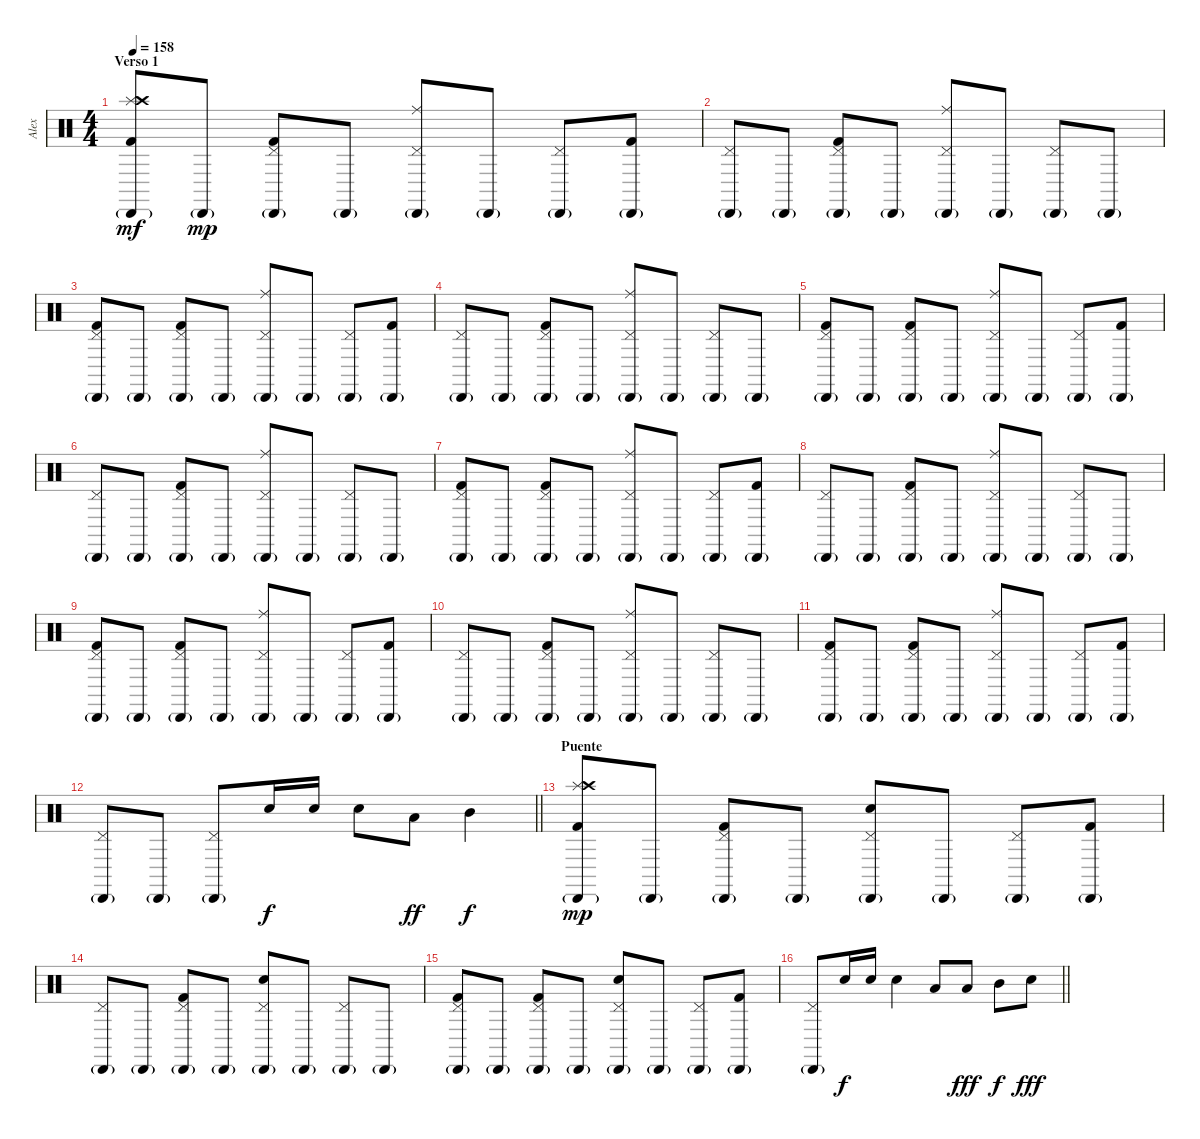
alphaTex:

\track ("Alex" "Alex") {instrument percussion}
\staff {score}
\articulation defaults
\ts (4 4)
\section ("" "Verso 1")
\tempo 158
\clef neutral
\ks c
("Splash (hit)" "Kick (hit) 2" "Crash high (hit)" "Cabasa (hit)"{g}).8{dy mf} "Cabasa (hit)"{g}.8{dy mp} ("Pedal Hi-Hat (hit)" "Kick (hit) 2" "Cabasa (hit)"{g}).8 "Cabasa (hit)"{g}.8 ("Pedal Hi-Hat (hit)" "Ride (middle)" "Cabasa (hit)"{g}).8 "Cabasa (hit)"{g}.8 ("Pedal Hi-Hat (hit)" "Cabasa (hit)"{g}).8 ("Kick (hit) 2" "Cabasa (hit)"{g}).8 |
("Pedal Hi-Hat (hit)" "Cabasa (hit)"{g}).8 "Cabasa (hit)"{g}.8 ("Pedal Hi-Hat (hit)" "Kick (hit) 2" "Cabasa (hit)"{g}).8 "Cabasa (hit)"{g}.8 ("Pedal Hi-Hat (hit)" "Ride (middle)" "Cabasa (hit)"{g}).8 "Cabasa (hit)"{g}.8 ("Pedal Hi-Hat (hit)" "Cabasa (hit)"{g}).8 "Cabasa (hit)"{g}.8 |
("Pedal Hi-Hat (hit)" "Kick (hit) 2" "Cabasa (hit)"{g}).8 "Cabasa (hit)"{g}.8 ("Pedal Hi-Hat (hit)" "Kick (hit) 2" "Cabasa (hit)"{g}).8 "Cabasa (hit)"{g}.8 ("Pedal Hi-Hat (hit)" "Ride (middle)" "Cabasa (hit)"{g}).8 "Cabasa (hit)"{g}.8 ("Pedal Hi-Hat (hit)" "Cabasa (hit)"{g}).8 ("Kick (hit) 2" "Cabasa (hit)"{g}).8 |
("Pedal Hi-Hat (hit)" "Cabasa (hit)"{g}).8 "Cabasa (hit)"{g}.8 ("Pedal Hi-Hat (hit)" "Kick (hit) 2" "Cabasa (hit)"{g}).8 "Cabasa (hit)"{g}.8 ("Pedal Hi-Hat (hit)" "Ride (middle)" "Cabasa (hit)"{g}).8 "Cabasa (hit)"{g}.8 ("Pedal Hi-Hat (hit)" "Cabasa (hit)"{g}).8 "Cabasa (hit)"{g}.8 |
("Pedal Hi-Hat (hit)" "Kick (hit) 2" "Cabasa (hit)"{g}).8 "Cabasa (hit)"{g}.8 ("Pedal Hi-Hat (hit)" "Kick (hit) 2" "Cabasa (hit)"{g}).8 "Cabasa (hit)"{g}.8 ("Pedal Hi-Hat (hit)" "Ride (middle)" "Cabasa (hit)"{g}).8 "Cabasa (hit)"{g}.8 ("Pedal Hi-Hat (hit)" "Cabasa (hit)"{g}).8 ("Kick (hit) 2" "Cabasa (hit)"{g}).8 |
("Pedal Hi-Hat (hit)" "Cabasa (hit)"{g}).8 "Cabasa (hit)"{g}.8 ("Pedal Hi-Hat (hit)" "Kick (hit) 2" "Cabasa (hit)"{g}).8 "Cabasa (hit)"{g}.8 ("Pedal Hi-Hat (hit)" "Ride (middle)" "Cabasa (hit)"{g}).8 "Cabasa (hit)"{g}.8 ("Pedal Hi-Hat (hit)" "Cabasa (hit)"{g}).8 "Cabasa (hit)"{g}.8 |
("Pedal Hi-Hat (hit)" "Kick (hit) 2" "Cabasa (hit)"{g}).8 "Cabasa (hit)"{g}.8 ("Pedal Hi-Hat (hit)" "Kick (hit) 2" "Cabasa (hit)"{g}).8 "Cabasa (hit)"{g}.8 ("Pedal Hi-Hat (hit)" "Ride (middle)" "Cabasa (hit)"{g}).8 "Cabasa (hit)"{g}.8 ("Pedal Hi-Hat (hit)" "Cabasa (hit)"{g}).8 ("Kick (hit) 2" "Cabasa (hit)"{g}).8 |
("Pedal Hi-Hat (hit)" "Cabasa (hit)"{g}).8 "Cabasa (hit)"{g}.8 ("Pedal Hi-Hat (hit)" "Kick (hit) 2" "Cabasa (hit)"{g}).8 "Cabasa (hit)"{g}.8 ("Pedal Hi-Hat (hit)" "Ride (middle)" "Cabasa (hit)"{g}).8 "Cabasa (hit)"{g}.8 ("Pedal Hi-Hat (hit)" "Cabasa (hit)"{g}).8 "Cabasa (hit)"{g}.8 |
("Pedal Hi-Hat (hit)" "Kick (hit) 2" "Cabasa (hit)"{g}).8 "Cabasa (hit)"{g}.8 ("Pedal Hi-Hat (hit)" "Kick (hit) 2" "Cabasa (hit)"{g}).8 "Cabasa (hit)"{g}.8 ("Pedal Hi-Hat (hit)" "Ride (middle)" "Cabasa (hit)"{g}).8 "Cabasa (hit)"{g}.8 ("Pedal Hi-Hat (hit)" "Cabasa (hit)"{g}).8 ("Kick (hit) 2" "Cabasa (hit)"{g}).8 |
("Pedal Hi-Hat (hit)" "Cabasa (hit)"{g}).8 "Cabasa (hit)"{g}.8 ("Pedal Hi-Hat (hit)" "Kick (hit) 2" "Cabasa (hit)"{g}).8 "Cabasa (hit)"{g}.8 ("Pedal Hi-Hat (hit)" "Ride (middle)" "Cabasa (hit)"{g}).8 "Cabasa (hit)"{g}.8 ("Pedal Hi-Hat (hit)" "Cabasa (hit)"{g}).8 "Cabasa (hit)"{g}.8 |
("Pedal Hi-Hat (hit)" "Kick (hit) 2" "Cabasa (hit)"{g}).8 "Cabasa (hit)"{g}.8 ("Pedal Hi-Hat (hit)" "Kick (hit) 2" "Cabasa (hit)"{g}).8 "Cabasa (hit)"{g}.8 ("Pedal Hi-Hat (hit)" "Ride (middle)" "Cabasa (hit)"{g}).8 "Cabasa (hit)"{g}.8 ("Pedal Hi-Hat (hit)" "Cabasa (hit)"{g}).8 ("Kick (hit) 2" "Cabasa (hit)"{g}).8 |
\barLineRight lightlight
("Pedal Hi-Hat (hit)" "Cabasa (hit)"{g}).8 "Cabasa (hit)"{g}.8 ("Pedal Hi-Hat (hit)" "Cabasa (hit)"{g}).8 "Electric Snare (hit)".16{dy f} "Electric Snare (hit)".16 "Electric Snare (hit)".8 "Low Tom (hit)".8{dy ff} "Mid Tom (hit)".4{dy f} |
\section ("" "Puente")
("Splash (hit)" "Kick (hit) 2" "Crash high (hit)" "Cabasa (hit)"{g}).8{dy mp} "Cabasa (hit)"{g}.8 ("Pedal Hi-Hat (hit)" "Kick (hit) 2" "Cabasa (hit)"{g}).8 "Cabasa (hit)"{g}.8 ("Pedal Hi-Hat (hit)" "Electric Snare (hit)" "Cabasa (hit)"{g}).8 "Cabasa (hit)"{g}.8 ("Pedal Hi-Hat (hit)" "Cabasa (hit)"{g}).8 ("Kick (hit) 2" "Cabasa (hit)"{g}).8 |
("Pedal Hi-Hat (hit)" "Cabasa (hit)"{g}).8 "Cabasa (hit)"{g}.8 ("Pedal Hi-Hat (hit)" "Kick (hit) 2" "Cabasa (hit)"{g}).8 "Cabasa (hit)"{g}.8 ("Pedal Hi-Hat (hit)" "Electric Snare (hit)" "Cabasa (hit)"{g}).8 "Cabasa (hit)"{g}.8 ("Pedal Hi-Hat (hit)" "Cabasa (hit)"{g}).8 "Cabasa (hit)"{g}.8 |
("Pedal Hi-Hat (hit)" "Kick (hit) 2" "Cabasa (hit)"{g}).8 "Cabasa (hit)"{g}.8 ("Pedal Hi-Hat (hit)" "Kick (hit) 2" "Cabasa (hit)"{g}).8 "Cabasa (hit)"{g}.8 ("Pedal Hi-Hat (hit)" "Electric Snare (hit)" "Cabasa (hit)"{g}).8 "Cabasa (hit)"{g}.8 ("Pedal Hi-Hat (hit)" "Cabasa (hit)"{g}).8 ("Kick (hit) 2" "Cabasa (hit)"{g}).8 |
\barLineRight lightlight
("Pedal Hi-Hat (hit)" "Cabasa (hit)"{g}).8 "Electric Snare (hit)".16{dy f} "Electric Snare (hit)".16 "Electric Snare (hit)".4 "Low Tom (hit)".8 "Low Tom (hit)".8{dy fff} "Mid Tom (hit)".8{dy f} "Electric Snare (hit)".8{dy fff}
